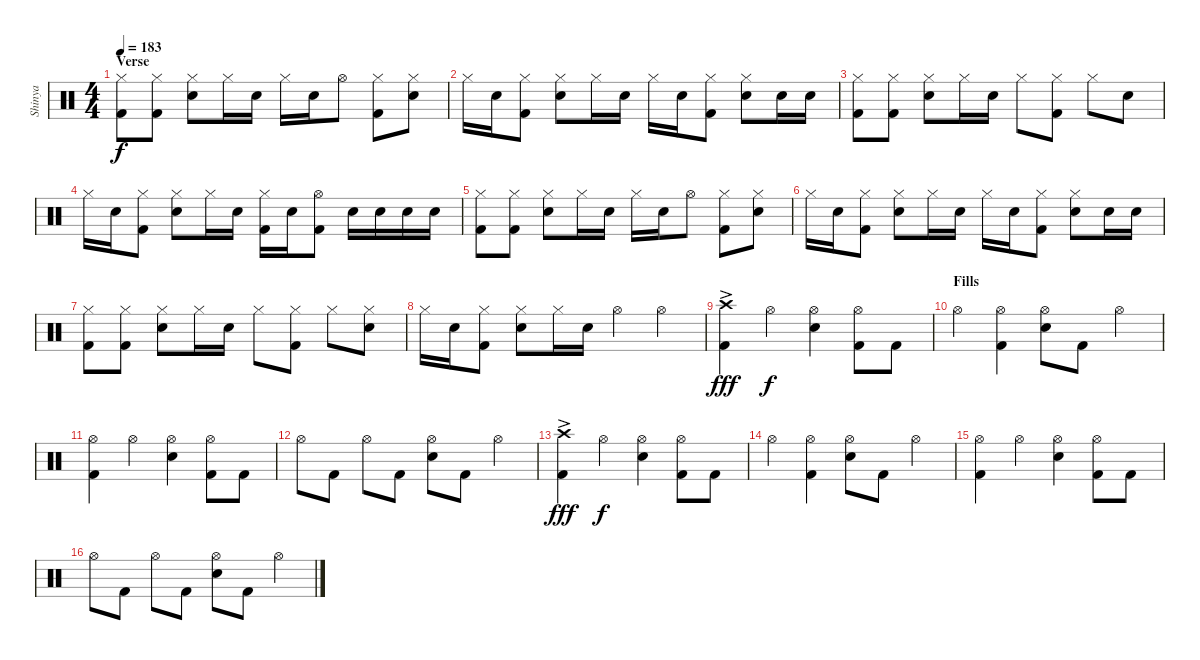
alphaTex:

\track ("Shinya" "Shinya") {instrument percussion}
\staff {score}
\articulation defaults
\ts (4 4)
\section ("" "Verse")
\tempo 183
\clef neutral
\ks c
("Hi-Hat (closed)" "Kick (hit) 2").8{dy f} ("Hi-Hat (closed)" "Kick (hit) 2").8 ("Hi-Hat (closed)" "Snare (hit) 2").8 "Hi-Hat (closed)".16 "Snare (hit) 2".16 "Hi-Hat (closed)".16 "Snare (hit) 2".16 "Hi-Hat (open)".8 ("Hi-Hat (closed)" "Kick (hit) 2").8 ("Hi-Hat (closed)" "Snare (hit) 2").8 |
"Hi-Hat (closed)".16 "Snare (hit) 2".16 ("Hi-Hat (closed)" "Kick (hit) 2").8 ("Hi-Hat (closed)" "Snare (hit) 2").8 "Hi-Hat (closed)".16 "Snare (hit) 2".16 "Hi-Hat (closed)".16 "Snare (hit) 2".16 ("Hi-Hat (closed)" "Kick (hit) 2").8 ("Hi-Hat (closed)" "Snare (hit) 2").8 "Snare (hit) 2".16 "Snare (hit) 2".16 |
("Hi-Hat (closed)" "Kick (hit) 2").8 ("Hi-Hat (closed)" "Kick (hit) 2").8 ("Hi-Hat (closed)" "Snare (hit) 2").8 "Hi-Hat (closed)".16 "Snare (hit) 2".16 "Hi-Hat (closed)".8 ("Hi-Hat (closed)" "Kick (hit) 2").8 "Hi-Hat (closed)".8 "Snare (hit) 2".8 |
"Hi-Hat (closed)".16 "Snare (hit) 2".16 ("Hi-Hat (closed)" "Kick (hit) 2").8 ("Hi-Hat (closed)" "Snare (hit) 2").8 "Hi-Hat (closed)".16 "Snare (hit) 2".16 ("Hi-Hat (closed)" "Kick (hit) 2").16 "Snare (hit) 2".16 ("Hi-Hat (open)" "Kick (hit) 2").8 "Snare (hit) 2".16 "Snare (hit) 2".16 "Snare (hit) 2".16 "Snare (hit) 2".16 |
("Hi-Hat (closed)" "Kick (hit) 2").8 ("Hi-Hat (closed)" "Kick (hit) 2").8 ("Hi-Hat (closed)" "Snare (hit) 2").8 "Hi-Hat (closed)".16 "Snare (hit) 2".16 "Hi-Hat (closed)".16 "Snare (hit) 2".16 "Hi-Hat (open)".8 ("Hi-Hat (closed)" "Kick (hit) 2").8 ("Hi-Hat (closed)" "Snare (hit) 2").8 |
"Hi-Hat (closed)".16 "Snare (hit) 2".16 ("Hi-Hat (closed)" "Kick (hit) 2").8 ("Hi-Hat (closed)" "Snare (hit) 2").8 "Hi-Hat (closed)".16 "Snare (hit) 2".16 "Hi-Hat (closed)".16 "Snare (hit) 2".16 ("Hi-Hat (closed)" "Kick (hit) 2").8 ("Hi-Hat (closed)" "Snare (hit) 2").8 "Snare (hit) 2".16 "Snare (hit) 2".16 |
("Hi-Hat (closed)" "Kick (hit) 2").8 ("Hi-Hat (closed)" "Kick (hit) 2").8 ("Hi-Hat (closed)" "Snare (hit) 2").8 "Hi-Hat (closed)".16 "Snare (hit) 2".16 "Hi-Hat (closed)".8 ("Hi-Hat (closed)" "Kick (hit) 2").8 "Hi-Hat (closed)".8 ("Hi-Hat (closed)" "Snare (hit) 2").8 |
"Hi-Hat (closed)".16 "Snare (hit) 2".16 ("Hi-Hat (closed)" "Kick (hit) 2").8 ("Hi-Hat (closed)" "Snare (hit) 2").8 "Hi-Hat (closed)".16 "Snare (hit) 2".16 "Hi-Hat (open)".4 "Hi-Hat (open)".4 |
("Crash high (hit)"{ac} "Kick (hit) 2").4{dy fff} "Hi-Hat (open)".4{dy f} ("Hi-Hat (open)" "Snare (hit) 2").4 ("Hi-Hat (open)" "Kick (hit) 2").8 "Kick (hit) 2".8 |
\section ("" "Fills ")
"Hi-Hat (open)".4 ("Hi-Hat (open)" "Kick (hit) 2").4 ("Hi-Hat (open)" "Snare (hit) 2").8 "Kick (hit) 2".8 "Hi-Hat (open)".4 |
("Hi-Hat (open)" "Kick (hit) 2").4 "Hi-Hat (open)".4 ("Hi-Hat (open)" "Snare (hit) 2").4 ("Hi-Hat (open)" "Kick (hit) 2").8 "Kick (hit) 2".8 |
"Hi-Hat (open)".8 "Kick (hit) 2".8 "Hi-Hat (open)".8 "Kick (hit) 2".8 ("Hi-Hat (open)" "Snare (hit) 2").8 "Kick (hit) 2".8 "Hi-Hat (open)".4 |
("Crash high (hit)"{ac} "Kick (hit) 2").4{dy fff} "Hi-Hat (open)".4{dy f} ("Hi-Hat (open)" "Snare (hit) 2").4 ("Hi-Hat (open)" "Kick (hit) 2").8 "Kick (hit) 2".8 |
"Hi-Hat (open)".4 ("Hi-Hat (open)" "Kick (hit) 2").4 ("Hi-Hat (open)" "Snare (hit) 2").8 "Kick (hit) 2".8 "Hi-Hat (open)".4 |
("Hi-Hat (open)" "Kick (hit) 2").4 "Hi-Hat (open)".4 ("Hi-Hat (open)" "Snare (hit) 2").4 ("Hi-Hat (open)" "Kick (hit) 2").8 "Kick (hit) 2".8 |
"Hi-Hat (open)".8 "Kick (hit) 2".8 "Hi-Hat (open)".8 "Kick (hit) 2".8 ("Hi-Hat (open)" "Snare (hit) 2").8 "Kick (hit) 2".8 "Hi-Hat (open)".4
